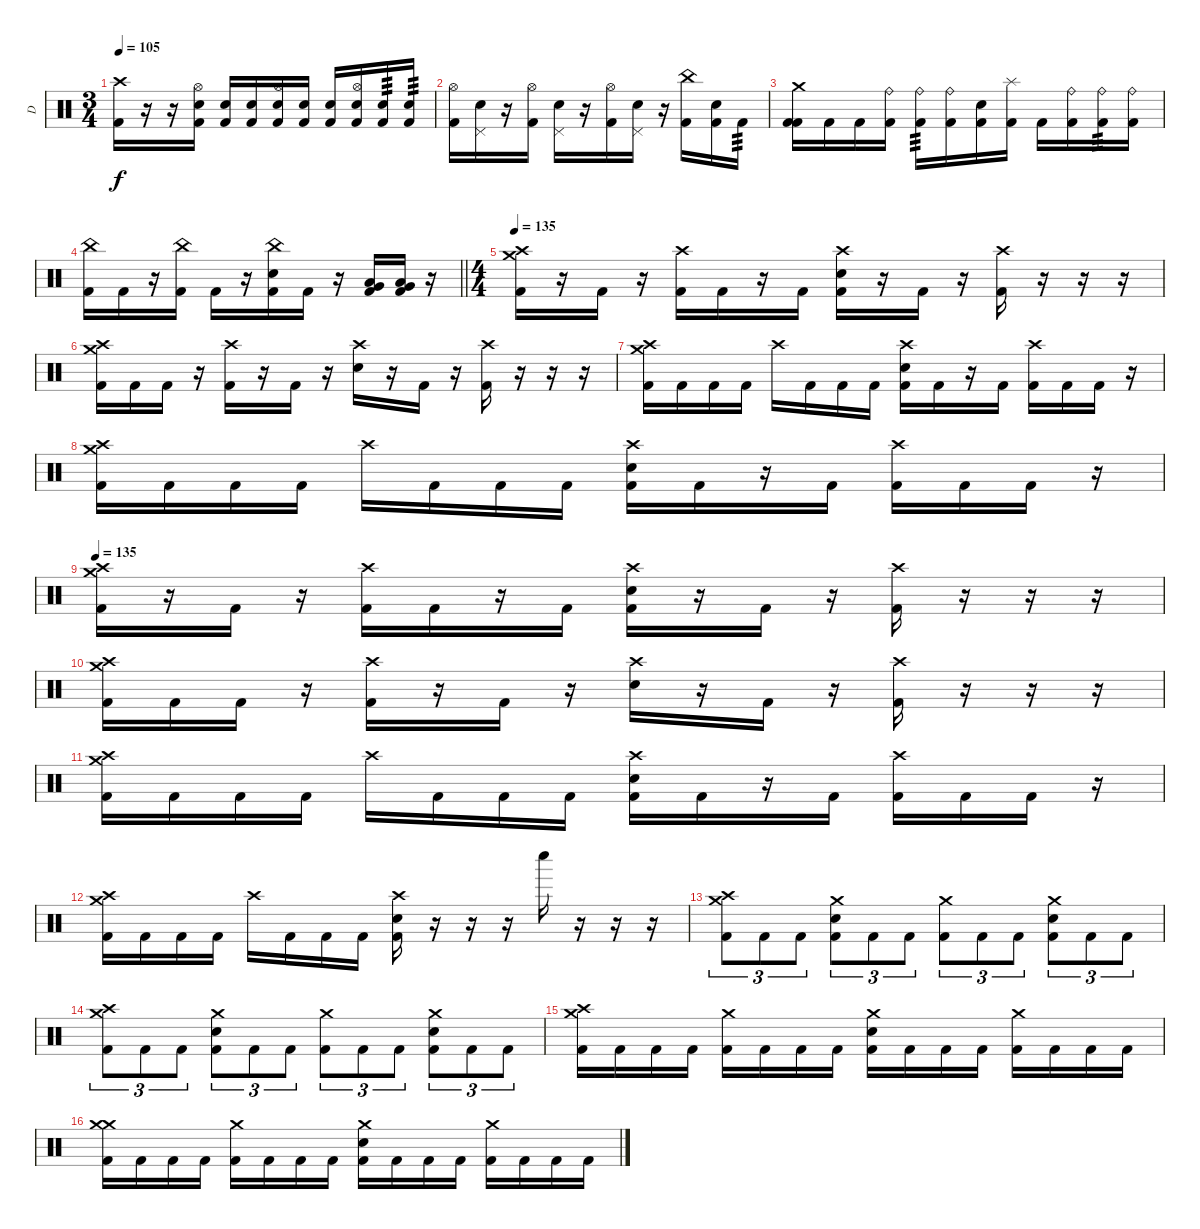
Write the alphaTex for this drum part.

\track ("D" "D") {instrument percussion}
\staff {score}
\articulation defaults
\ts (3 4)
\tempo 105
\clef neutral
\ks c
("Crash high (hit)" "Kick (hit) 2").16{dy f} r.16 r.16 ("Hi-Hat (open)" "Electric Snare (hit)" "Kick (hit) 2").16 ("Electric Snare (hit)" "Kick (hit) 2").16 ("Electric Snare (hit)" "Kick (hit) 2").16 ("Hi-Hat (open)" "Electric Snare (hit)" "Kick (hit) 2").16 ("Electric Snare (hit)" "Kick (hit) 2").16 ("Electric Snare (hit)" "Kick (hit) 2").16 ("Hi-Hat (open)" "Electric Snare (hit)" "Kick (hit) 2").16 ("Electric Snare (hit)" "Kick (hit) 2").16{tp 3} ("Electric Snare (hit)" "Kick (hit) 2").16{tp 3} |
("Hi-Hat (open)" "Kick (hit) 2").16 ("Pedal Hi-Hat (hit)" "Electric Snare (hit)").16 r.16 ("Hi-Hat (open)" "Kick (hit) 2").16 ("Pedal Hi-Hat (hit)" "Electric Snare (hit)").16 r.16 ("Hi-Hat (open)" "Kick (hit) 2").16 ("Pedal Hi-Hat (hit)" "Electric Snare (hit)").16 r.16 ("China (hit)" "Kick (hit) 2").16 ("Electric Snare (hit)" "Kick (hit) 2").16 "Kick (hit) 2".16{tp 3} |
("Kick (hit) 2" "Crash medium (hit)" "Kick (hit) 2").16 "Kick (hit) 2".16 "Kick (hit) 2".16 ("Kick (hit) 2" "Ride (bell)").16 ("Kick (hit) 2" "Ride (bell)").16{tp 3} ("Kick (hit) 2" "Ride (bell)").16 ("Kick (hit) 2" "Electric Snare (hit)").16 ("Kick (hit) 2" "Splash (hit)").16 "Kick (hit) 2".16 ("Kick (hit) 2" "Ride (bell)").16 ("Kick (hit) 2" "Ride (bell)").16{tp 3} ("Kick (hit) 2" "Ride (bell)").16 |
\barLineRight lightlight
("Kick (hit) 2" "China (hit)").16 "Kick (hit) 2".16 r.16 ("Kick (hit) 2" "China (hit)").16 "Kick (hit) 2".16 r.16 ("Kick (hit) 2" "Electric Snare (hit)" "China (hit)").16 "Kick (hit) 2".16 r.16 ("Low Tom (hit)" "Very Low Tom (hit)" "Kick (hit) 2").16 ("Low Tom (hit)" "Very Low Tom (hit)" "Kick (hit) 2").16 r.16 |
\ts (4 4)
\tempo 135
("Crash medium (hit)" "Crash high (hit)" "Kick (hit) 2").16 r.16 "Kick (hit) 2".16 r.16 ("Crash high (hit)" "Kick (hit) 2").16 "Kick (hit) 2".16 r.16 "Kick (hit) 2".16 ("Crash high (hit)" "Electric Snare (hit)" "Kick (hit) 2").16 r.16 "Kick (hit) 2".16 r.16 ("Crash high (hit)" "Kick (hit) 2").16 r.16 r.16 r.16 |
("Crash medium (hit)" "Crash high (hit)" "Kick (hit) 2").16 "Kick (hit) 2".16 "Kick (hit) 2".16 r.16 ("Crash high (hit)" "Kick (hit) 2").16 r.16 "Kick (hit) 2".16 r.16 ("Electric Snare (hit)" "Crash high (hit)").16 r.16 "Kick (hit) 2".16 r.16 ("Crash high (hit)" "Kick (hit) 2").16 r.16 r.16 r.16 |
("Crash medium (hit)" "Crash high (hit)" "Kick (hit) 2").16 "Kick (hit) 2".16 "Kick (hit) 2".16 "Kick (hit) 2".16 "Crash high (hit)".16 "Kick (hit) 2".16 "Kick (hit) 2".16 "Kick (hit) 2".16 ("Electric Snare (hit)" "Crash high (hit)" "Kick (hit) 2").16 "Kick (hit) 2".16 r.16 "Kick (hit) 2".16 ("Crash high (hit)" "Kick (hit) 2").16 "Kick (hit) 2".16 "Kick (hit) 2".16 r.16 |
("Crash medium (hit)" "Crash high (hit)" "Kick (hit) 2").16 "Kick (hit) 2".16 "Kick (hit) 2".16 "Kick (hit) 2".16 "Crash high (hit)".16 "Kick (hit) 2".16 "Kick (hit) 2".16 "Kick (hit) 2".16 ("Electric Snare (hit)" "Crash high (hit)" "Kick (hit) 2").16 "Kick (hit) 2".16 r.16 "Kick (hit) 2".16 ("Crash high (hit)" "Kick (hit) 2").16 "Kick (hit) 2".16 "Kick (hit) 2".16 r.16 |
\tempo 135
("Crash medium (hit)" "Crash high (hit)" "Kick (hit) 2").16 r.16 "Kick (hit) 2".16 r.16 ("Crash high (hit)" "Kick (hit) 2").16 "Kick (hit) 2".16 r.16 "Kick (hit) 2".16 ("Crash high (hit)" "Electric Snare (hit)" "Kick (hit) 2").16 r.16 "Kick (hit) 2".16 r.16 ("Crash high (hit)" "Kick (hit) 2").16 r.16 r.16 r.16 |
("Crash medium (hit)" "Crash high (hit)" "Kick (hit) 2").16 "Kick (hit) 2".16 "Kick (hit) 2".16 r.16 ("Crash high (hit)" "Kick (hit) 2").16 r.16 "Kick (hit) 2".16 r.16 ("Electric Snare (hit)" "Crash high (hit)").16 r.16 "Kick (hit) 2".16 r.16 ("Crash high (hit)" "Kick (hit) 2").16 r.16 r.16 r.16 |
("Crash medium (hit)" "Crash high (hit)" "Kick (hit) 2").16 "Kick (hit) 2".16 "Kick (hit) 2".16 "Kick (hit) 2".16 "Crash high (hit)".16 "Kick (hit) 2".16 "Kick (hit) 2".16 "Kick (hit) 2".16 ("Electric Snare (hit)" "Crash high (hit)" "Kick (hit) 2").16 "Kick (hit) 2".16 r.16 "Kick (hit) 2".16 ("Crash high (hit)" "Kick (hit) 2").16 "Kick (hit) 2".16 "Kick (hit) 2".16 r.16 |
("Crash medium (hit)" "Crash high (hit)" "Kick (hit) 2").16 "Kick (hit) 2".16 "Kick (hit) 2".16 "Kick (hit) 2".16 "Crash high (hit)".16 "Kick (hit) 2".16 "Kick (hit) 2".16 "Kick (hit) 2".16 ("Electric Snare (hit)" "Crash high (hit)" "Kick (hit) 2").16 r.16 r.16 r.16 "Whistle low (hit)".16 r.16 r.16 r.16 |
("Crash high (hit)" "Crash medium (hit)" "Kick (hit) 2").8{tu (3 2)} "Kick (hit) 2".8{tu (3 2)} "Kick (hit) 2".8{tu (3 2)} ("Electric Snare (hit)" "Crash medium (hit)" "Kick (hit) 2").8{tu (3 2)} "Kick (hit) 2".8{tu (3 2)} "Kick (hit) 2".8{tu (3 2)} ("Crash medium (hit)" "Kick (hit) 2").8{tu (3 2)} "Kick (hit) 2".8{tu (3 2)} "Kick (hit) 2".8{tu (3 2)} ("Electric Snare (hit)" "Crash medium (hit)" "Kick (hit) 2").8{tu (3 2)} "Kick (hit) 2".8{tu (3 2)} "Kick (hit) 2".8{tu (3 2)} |
("Crash high (hit)" "Crash medium (hit)" "Kick (hit) 2").8{tu (3 2)} "Kick (hit) 2".8{tu (3 2)} "Kick (hit) 2".8{tu (3 2)} ("Electric Snare (hit)" "Crash medium (hit)" "Kick (hit) 2").8{tu (3 2)} "Kick (hit) 2".8{tu (3 2)} "Kick (hit) 2".8{tu (3 2)} ("Crash medium (hit)" "Kick (hit) 2").8{tu (3 2)} "Kick (hit) 2".8{tu (3 2)} "Kick (hit) 2".8{tu (3 2)} ("Electric Snare (hit)" "Crash medium (hit)" "Kick (hit) 2").8{tu (3 2)} "Kick (hit) 2".8{tu (3 2)} "Kick (hit) 2".8{tu (3 2)} |
("Crash high (hit)" "Crash medium (hit)" "Kick (hit) 2").16 "Kick (hit) 2".16 "Kick (hit) 2".16 "Kick (hit) 2".16 ("Crash medium (hit)" "Kick (hit) 2").16 "Kick (hit) 2".16 "Kick (hit) 2".16 "Kick (hit) 2".16 ("Electric Snare (hit)" "Crash medium (hit)" "Kick (hit) 2").16 "Kick (hit) 2".16 "Kick (hit) 2".16 "Kick (hit) 2".16 ("Crash medium (hit)" "Kick (hit) 2").16 "Kick (hit) 2".16 "Kick (hit) 2".16 "Kick (hit) 2".16 |
("Crash medium (hit)" "Crash medium (hit)" "Kick (hit) 2").16 "Kick (hit) 2".16 "Kick (hit) 2".16 "Kick (hit) 2".16 ("Crash medium (hit)" "Kick (hit) 2").16 "Kick (hit) 2".16 "Kick (hit) 2".16 "Kick (hit) 2".16 ("Electric Snare (hit)" "Crash medium (hit)" "Kick (hit) 2").16 "Kick (hit) 2".16 "Kick (hit) 2".16 "Kick (hit) 2".16 ("Crash medium (hit)" "Kick (hit) 2").16 "Kick (hit) 2".16 "Kick (hit) 2".16 "Kick (hit) 2".16
